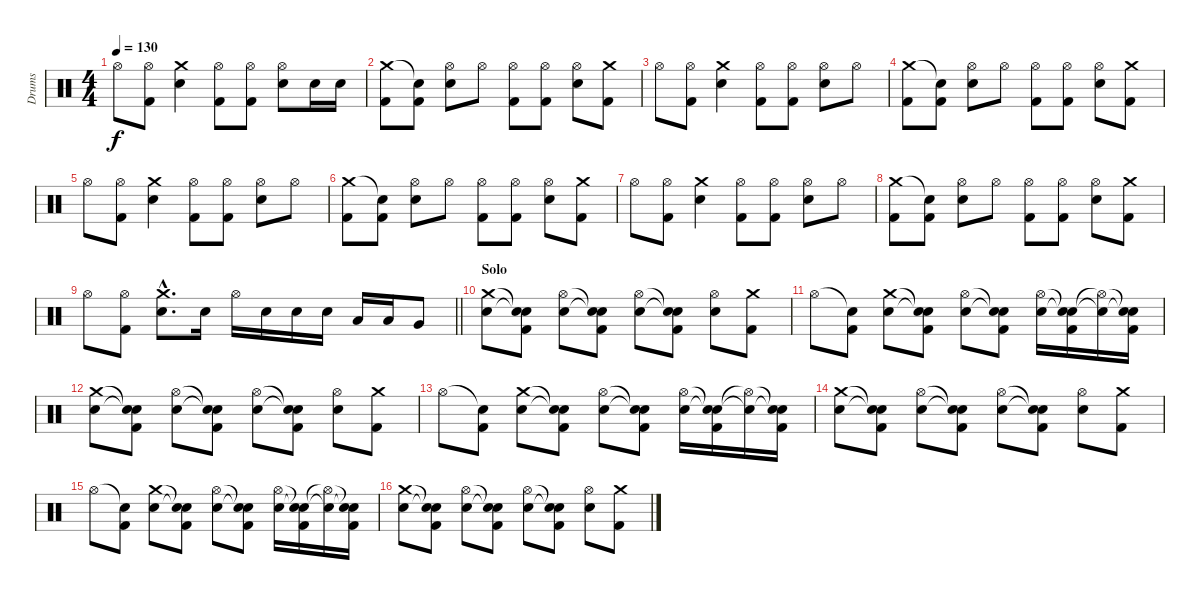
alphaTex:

\track ("Drums" "Drums") {instrument percussion}
\staff {score}
\articulation defaults
\ts (4 4)
\tempo 130
\clef neutral
\ks c "Hi-Hat (open)".8{dy f}
("Hi-Hat (open)" "Kick (hit) 2").8 ("Crash medium (hit)" "Electric Snare (hit)").4 ("Hi-Hat (open)" "Kick (hit) 2").8 ("Hi-Hat (open)" "Kick (hit) 2").8 ("Hi-Hat (open)" "Electric Snare (hit)").8 "Electric Snare (hit)".16 "Electric Snare (hit)".16 |
("Crash medium (hit)" "Kick (hit) 2").8 ("Snare (hit)"{t} "Kick (hit) 2").8 ("Hi-Hat (open)" "Electric Snare (hit)").8 "Hi-Hat (open)".8 ("Hi-Hat (open)" "Kick (hit) 2").8 ("Hi-Hat (open)" "Kick (hit) 2").8 ("Hi-Hat (open)" "Electric Snare (hit)").8 ("Crash medium (hit)" "Kick (hit) 2").8 |
"Hi-Hat (open)".8 ("Hi-Hat (open)" "Kick (hit) 2").8 ("Crash medium (hit)" "Electric Snare (hit)").4 ("Hi-Hat (open)" "Kick (hit) 2").8 ("Hi-Hat (open)" "Kick (hit) 2").8 ("Hi-Hat (open)" "Electric Snare (hit)").8 "Hi-Hat (open)".8 |
("Crash medium (hit)" "Kick (hit) 2").8 ("Snare (hit)"{t} "Kick (hit) 2").8 ("Hi-Hat (open)" "Electric Snare (hit)").8 "Hi-Hat (open)".8 ("Hi-Hat (open)" "Kick (hit) 2").8 ("Hi-Hat (open)" "Kick (hit) 2").8 ("Hi-Hat (open)" "Electric Snare (hit)").8 ("Crash medium (hit)" "Kick (hit) 2").8 |
"Hi-Hat (open)".8 ("Hi-Hat (open)" "Kick (hit) 2").8 ("Crash medium (hit)" "Electric Snare (hit)").4 ("Hi-Hat (open)" "Kick (hit) 2").8 ("Hi-Hat (open)" "Kick (hit) 2").8 ("Hi-Hat (open)" "Electric Snare (hit)").8 "Hi-Hat (open)".8 |
("Crash medium (hit)" "Kick (hit) 2").8 ("Snare (hit)"{t} "Kick (hit) 2").8 ("Hi-Hat (open)" "Electric Snare (hit)").8 "Hi-Hat (open)".8 ("Hi-Hat (open)" "Kick (hit) 2").8 ("Hi-Hat (open)" "Kick (hit) 2").8 ("Hi-Hat (open)" "Electric Snare (hit)").8 ("Crash medium (hit)" "Kick (hit) 2").8 |
"Hi-Hat (open)".8 ("Hi-Hat (open)" "Kick (hit) 2").8 ("Crash medium (hit)" "Electric Snare (hit)").4 ("Hi-Hat (open)" "Kick (hit) 2").8 ("Hi-Hat (open)" "Kick (hit) 2").8 ("Hi-Hat (open)" "Electric Snare (hit)").8 "Hi-Hat (open)".8 |
("Crash medium (hit)" "Kick (hit) 2").8 ("Snare (hit)"{t} "Kick (hit) 2").8 ("Hi-Hat (open)" "Electric Snare (hit)").8 "Hi-Hat (open)".8 ("Hi-Hat (open)" "Kick (hit) 2").8 ("Hi-Hat (open)" "Kick (hit) 2").8 ("Hi-Hat (open)" "Electric Snare (hit)").8 ("Crash medium (hit)" "Kick (hit) 2").8 |
\barLineRight lightlight "Hi-Hat (open)".8
("Hi-Hat (open)" "Kick (hit) 2").8 ("Crash medium (hit)"{hac} "Electric Snare (hit)"{hac}).8{d} "Electric Snare (hit)".16 "Hi-Hat (open)".16 "Electric Snare (hit)".16 "Electric Snare (hit)".16 "Electric Snare (hit)".16 "Low Tom (hit)".16 "Low Tom (hit)".16 "Very Low Tom (hit)".8 |
\section ("" "Solo")
("Crash medium (hit)" "Electric Snare (hit)").8 ("Snare (hit)"{t} "Snare (hit)"{t} "Kick (hit) 2").8 ("Hi-Hat (open)" "Electric Snare (hit)").8 ("Snare (hit)"{t} "Snare (hit)"{t} "Kick (hit) 2").8 ("Hi-Hat (open)" "Electric Snare (hit)").8 ("Snare (hit)"{t} "Snare (hit)"{t} "Kick (hit) 2").8 ("Hi-Hat (open)" "Electric Snare (hit)").8 ("Crash medium (hit)" "Kick (hit) 2").8 |
"Hi-Hat (open)".8 ("Snare (hit)"{t} "Kick (hit) 2").8 ("Crash medium (hit)" "Electric Snare (hit)").8 ("Snare (hit)"{t} "Snare (hit)"{t} "Kick (hit) 2").8 ("Hi-Hat (open)" "Electric Snare (hit)").8 ("Snare (hit)"{t} "Snare (hit)"{t} "Kick (hit) 2").8 ("Hi-Hat (open)" "Electric Snare (hit)").16 ("Snare (hit)"{t} "Snare (hit)"{t} "Kick (hit) 2").16 ("Hi-Hat (open)"{t} "Electric Snare (hit)"{t}).16 ("Snare (hit)"{t} "Snare (hit)"{t} "Kick (hit) 2").16 |
("Crash medium (hit)" "Electric Snare (hit)").8 ("Snare (hit)"{t} "Snare (hit)"{t} "Kick (hit) 2").8 ("Hi-Hat (open)" "Electric Snare (hit)").8 ("Snare (hit)"{t} "Snare (hit)"{t} "Kick (hit) 2").8 ("Hi-Hat (open)" "Electric Snare (hit)").8 ("Snare (hit)"{t} "Snare (hit)"{t} "Kick (hit) 2").8 ("Hi-Hat (open)" "Electric Snare (hit)").8 ("Crash medium (hit)" "Kick (hit) 2").8 |
"Hi-Hat (open)".8 ("Snare (hit)"{t} "Kick (hit) 2").8 ("Crash medium (hit)" "Electric Snare (hit)").8 ("Snare (hit)"{t} "Snare (hit)"{t} "Kick (hit) 2").8 ("Hi-Hat (open)" "Electric Snare (hit)").8 ("Snare (hit)"{t} "Snare (hit)"{t} "Kick (hit) 2").8 ("Hi-Hat (open)" "Electric Snare (hit)").16 ("Snare (hit)"{t} "Snare (hit)"{t} "Kick (hit) 2").16 ("Hi-Hat (open)"{t} "Electric Snare (hit)"{t}).16 ("Snare (hit)"{t} "Snare (hit)"{t} "Kick (hit) 2").16 |
("Crash medium (hit)" "Electric Snare (hit)").8 ("Snare (hit)"{t} "Snare (hit)"{t} "Kick (hit) 2").8 ("Hi-Hat (open)" "Electric Snare (hit)").8 ("Snare (hit)"{t} "Snare (hit)"{t} "Kick (hit) 2").8 ("Hi-Hat (open)" "Electric Snare (hit)").8 ("Snare (hit)"{t} "Snare (hit)"{t} "Kick (hit) 2").8 ("Hi-Hat (open)" "Electric Snare (hit)").8 ("Crash medium (hit)" "Kick (hit) 2").8 |
"Hi-Hat (open)".8 ("Snare (hit)"{t} "Kick (hit) 2").8 ("Crash medium (hit)" "Electric Snare (hit)").8 ("Snare (hit)"{t} "Snare (hit)"{t} "Kick (hit) 2").8 ("Hi-Hat (open)" "Electric Snare (hit)").8 ("Snare (hit)"{t} "Snare (hit)"{t} "Kick (hit) 2").8 ("Hi-Hat (open)" "Electric Snare (hit)").16 ("Snare (hit)"{t} "Snare (hit)"{t} "Kick (hit) 2").16 ("Hi-Hat (open)"{t} "Electric Snare (hit)"{t}).16 ("Snare (hit)"{t} "Snare (hit)"{t} "Kick (hit) 2").16 |
("Crash medium (hit)" "Electric Snare (hit)").8 ("Snare (hit)"{t} "Snare (hit)"{t} "Kick (hit) 2").8 ("Hi-Hat (open)" "Electric Snare (hit)").8 ("Snare (hit)"{t} "Snare (hit)"{t} "Kick (hit) 2").8 ("Hi-Hat (open)" "Electric Snare (hit)").8 ("Snare (hit)"{t} "Snare (hit)"{t} "Kick (hit) 2").8 ("Hi-Hat (open)" "Electric Snare (hit)").8 ("Crash medium (hit)" "Kick (hit) 2").8
